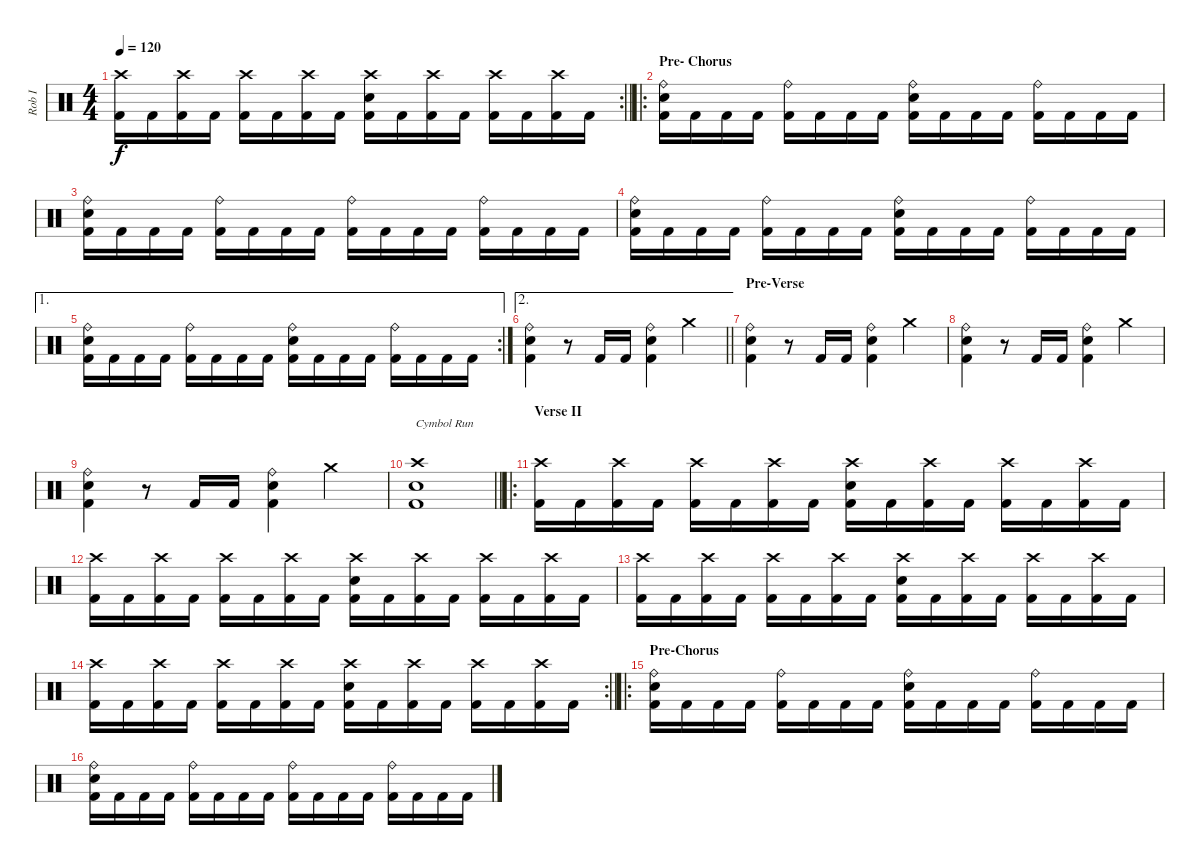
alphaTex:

\track ("Rob I" "Rob I") {instrument percussion}
\staff {score}
\articulation defaults
\rc 2
\ts (4 4)
\tempo 120
\clef neutral
\barLineRight lightlight
\ks c
("Kick (hit) 2" "Crash high (hit)").16{dy f} "Kick (hit) 2".16 ("Kick (hit) 2" "Crash high (hit)").16 "Kick (hit) 2".16 ("Kick (hit) 2" "Crash high (hit)").16 "Kick (hit) 2".16 ("Kick (hit) 2" "Crash high (hit)").16 "Kick (hit) 2".16 ("Kick (hit) 2" "Crash high (hit)" "Electric Snare (hit)").16 "Kick (hit) 2".16 ("Kick (hit) 2" "Crash high (hit)").16 "Kick (hit) 2".16 ("Kick (hit) 2" "Crash high (hit)").16 "Kick (hit) 2".16 ("Kick (hit) 2" "Crash high (hit)").16 "Kick (hit) 2".16 |
\ro
\section ("" "Pre- Chorus")
("Kick (hit) 2" "Ride (bell)" "Electric Snare (hit)").16 "Kick (hit) 2".16 "Kick (hit) 2".16 "Kick (hit) 2".16 ("Kick (hit) 2" "Ride (bell)").16 "Kick (hit) 2".16 "Kick (hit) 2".16 "Kick (hit) 2".16 ("Kick (hit) 2" "Ride (bell)" "Electric Snare (hit)").16 "Kick (hit) 2".16 "Kick (hit) 2".16 "Kick (hit) 2".16 ("Kick (hit) 2" "Ride (bell)").16 "Kick (hit) 2".16 "Kick (hit) 2".16 "Kick (hit) 2".16 |
("Kick (hit) 2" "Ride (bell)" "Electric Snare (hit)").16 "Kick (hit) 2".16 "Kick (hit) 2".16 "Kick (hit) 2".16 ("Kick (hit) 2" "Ride (bell)").16 "Kick (hit) 2".16 "Kick (hit) 2".16 "Kick (hit) 2".16 ("Kick (hit) 2" "Ride (bell)").16 "Kick (hit) 2".16 "Kick (hit) 2".16 "Kick (hit) 2".16 ("Kick (hit) 2" "Ride (bell)").16 "Kick (hit) 2".16 "Kick (hit) 2".16 "Kick (hit) 2".16 |
("Kick (hit) 2" "Ride (bell)" "Electric Snare (hit)").16 "Kick (hit) 2".16 "Kick (hit) 2".16 "Kick (hit) 2".16 ("Kick (hit) 2" "Ride (bell)").16 "Kick (hit) 2".16 "Kick (hit) 2".16 "Kick (hit) 2".16 ("Kick (hit) 2" "Ride (bell)" "Electric Snare (hit)").16 "Kick (hit) 2".16 "Kick (hit) 2".16 "Kick (hit) 2".16 ("Kick (hit) 2" "Ride (bell)").16 "Kick (hit) 2".16 "Kick (hit) 2".16 "Kick (hit) 2".16 |
\ae 1
\rc 2
("Kick (hit) 2" "Ride (bell)" "Electric Snare (hit)").16 "Kick (hit) 2".16 "Kick (hit) 2".16 "Kick (hit) 2".16 ("Kick (hit) 2" "Ride (bell)").16 "Kick (hit) 2".16 "Kick (hit) 2".16 "Kick (hit) 2".16 ("Kick (hit) 2" "Ride (bell)" "Electric Snare (hit)").16 "Kick (hit) 2".16 "Kick (hit) 2".16 "Kick (hit) 2".16 ("Kick (hit) 2" "Ride (bell)").16 "Kick (hit) 2".16 "Kick (hit) 2".16 "Kick (hit) 2".16 |
\ae 2
\barLineRight lightlight
("Electric Snare (hit)" "Ride (bell)" "Kick (hit) 2").4 r.8 "Kick (hit) 2".16 "Kick (hit) 2".16 ("Electric Snare (hit)" "Ride (bell)" "Kick (hit) 2").4 "Crash medium (hit)".4 |
\section ("" "Pre-Verse")
("Electric Snare (hit)" "Ride (bell)" "Kick (hit) 2").4 r.8 "Kick (hit) 2".16 "Kick (hit) 2".16 ("Electric Snare (hit)" "Ride (bell)" "Kick (hit) 2").4 "Crash medium (hit)".4 |
("Electric Snare (hit)" "Ride (bell)" "Kick (hit) 2").4 r.8 "Kick (hit) 2".16 "Kick (hit) 2".16 ("Electric Snare (hit)" "Ride (bell)" "Kick (hit) 2").4 "Crash medium (hit)".4 |
("Electric Snare (hit)" "Ride (bell)" "Kick (hit) 2").4 r.8 "Kick (hit) 2".16 "Kick (hit) 2".16 ("Electric Snare (hit)" "Ride (bell)" "Kick (hit) 2").4 "Crash medium (hit)".4 |
\barLineRight lightlight
("Kick (hit) 2" "Electric Snare (hit)" "Crash high (hit)").1{txt "Cymbol Run"} |
\ro
\section ("" "Verse II")
("Kick (hit) 2" "Crash high (hit)").16 "Kick (hit) 2".16 ("Kick (hit) 2" "Crash high (hit)").16 "Kick (hit) 2".16 ("Kick (hit) 2" "Crash high (hit)").16 "Kick (hit) 2".16 ("Kick (hit) 2" "Crash high (hit)").16 "Kick (hit) 2".16 ("Kick (hit) 2" "Crash high (hit)" "Electric Snare (hit)").16 "Kick (hit) 2".16 ("Kick (hit) 2" "Crash high (hit)").16 "Kick (hit) 2".16 ("Kick (hit) 2" "Crash high (hit)").16 "Kick (hit) 2".16 ("Kick (hit) 2" "Crash high (hit)").16 "Kick (hit) 2".16 |
("Kick (hit) 2" "Crash high (hit)").16 "Kick (hit) 2".16 ("Kick (hit) 2" "Crash high (hit)").16 "Kick (hit) 2".16 ("Kick (hit) 2" "Crash high (hit)").16 "Kick (hit) 2".16 ("Kick (hit) 2" "Crash high (hit)").16 "Kick (hit) 2".16 ("Kick (hit) 2" "Crash high (hit)" "Electric Snare (hit)").16 "Kick (hit) 2".16 ("Kick (hit) 2" "Crash high (hit)").16 "Kick (hit) 2".16 ("Kick (hit) 2" "Crash high (hit)").16 "Kick (hit) 2".16 ("Kick (hit) 2" "Crash high (hit)").16 "Kick (hit) 2".16 |
("Kick (hit) 2" "Crash high (hit)").16 "Kick (hit) 2".16 ("Kick (hit) 2" "Crash high (hit)").16 "Kick (hit) 2".16 ("Kick (hit) 2" "Crash high (hit)").16 "Kick (hit) 2".16 ("Kick (hit) 2" "Crash high (hit)").16 "Kick (hit) 2".16 ("Kick (hit) 2" "Crash high (hit)" "Electric Snare (hit)").16 "Kick (hit) 2".16 ("Kick (hit) 2" "Crash high (hit)").16 "Kick (hit) 2".16 ("Kick (hit) 2" "Crash high (hit)").16 "Kick (hit) 2".16 ("Kick (hit) 2" "Crash high (hit)").16 "Kick (hit) 2".16 |
\rc 2
\barLineRight lightlight
("Kick (hit) 2" "Crash high (hit)").16 "Kick (hit) 2".16 ("Kick (hit) 2" "Crash high (hit)").16 "Kick (hit) 2".16 ("Kick (hit) 2" "Crash high (hit)").16 "Kick (hit) 2".16 ("Kick (hit) 2" "Crash high (hit)").16 "Kick (hit) 2".16 ("Kick (hit) 2" "Crash high (hit)" "Electric Snare (hit)").16 "Kick (hit) 2".16 ("Kick (hit) 2" "Crash high (hit)").16 "Kick (hit) 2".16 ("Kick (hit) 2" "Crash high (hit)").16 "Kick (hit) 2".16 ("Kick (hit) 2" "Crash high (hit)").16 "Kick (hit) 2".16 |
\ro
\section ("" "Pre-Chorus")
("Kick (hit) 2" "Ride (bell)" "Electric Snare (hit)").16 "Kick (hit) 2".16 "Kick (hit) 2".16 "Kick (hit) 2".16 ("Kick (hit) 2" "Ride (bell)").16 "Kick (hit) 2".16 "Kick (hit) 2".16 "Kick (hit) 2".16 ("Kick (hit) 2" "Ride (bell)" "Electric Snare (hit)").16 "Kick (hit) 2".16 "Kick (hit) 2".16 "Kick (hit) 2".16 ("Kick (hit) 2" "Ride (bell)").16 "Kick (hit) 2".16 "Kick (hit) 2".16 "Kick (hit) 2".16 |
("Kick (hit) 2" "Ride (bell)" "Electric Snare (hit)").16 "Kick (hit) 2".16 "Kick (hit) 2".16 "Kick (hit) 2".16 ("Kick (hit) 2" "Ride (bell)").16 "Kick (hit) 2".16 "Kick (hit) 2".16 "Kick (hit) 2".16 ("Kick (hit) 2" "Ride (bell)").16 "Kick (hit) 2".16 "Kick (hit) 2".16 "Kick (hit) 2".16 ("Kick (hit) 2" "Ride (bell)").16 "Kick (hit) 2".16 "Kick (hit) 2".16 "Kick (hit) 2".16
